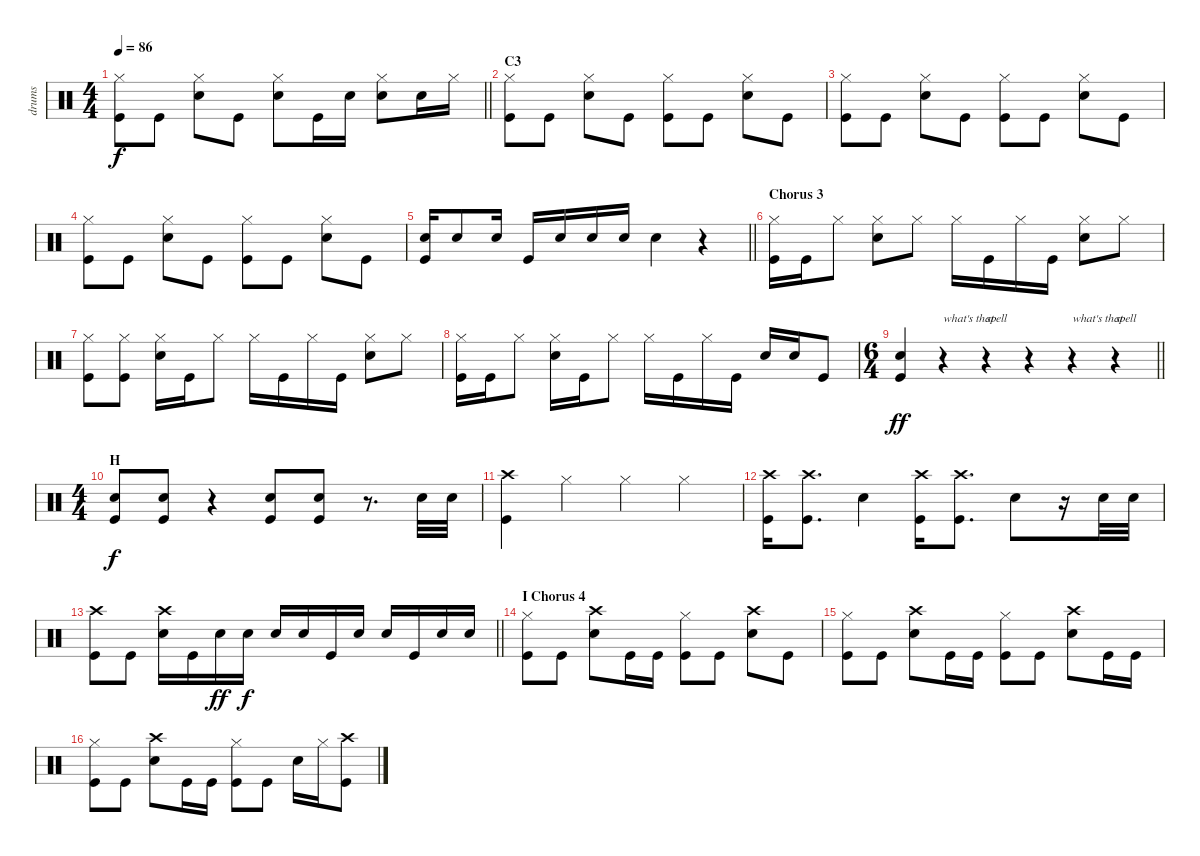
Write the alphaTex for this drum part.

\track ("drums" "drums") {instrument percussion}
\staff {score}
\articulation defaults
\ts (4 4)
\tempo 86
\clef neutral
\barLineRight lightlight
\ks c
("Hi-Hat (closed)" "Kick (hit)").8{dy f} "Kick (hit)".8 ("Snare (hit) 2" "Hi-Hat (closed)").8 "Kick (hit)".8 ("Snare (hit) 2" "Hi-Hat (closed)").8 "Kick (hit)".16 "Snare (hit) 2".16 ("Snare (hit) 2" "Hi-Hat (closed)").8 "Snare (hit) 2".16 "Hi-Hat (closed)".16 |
\section ("" "C3")
("Hi-Hat (closed)" "Kick (hit)").8 "Kick (hit)".8 ("Snare (hit) 2" "Hi-Hat (closed)").8 "Kick (hit)".8 ("Hi-Hat (closed)" "Kick (hit)").8 "Kick (hit)".8 ("Snare (hit) 2" "Hi-Hat (closed)").8 "Kick (hit)".8 |
("Hi-Hat (closed)" "Kick (hit)").8 "Kick (hit)".8 ("Snare (hit) 2" "Hi-Hat (closed)").8 "Kick (hit)".8 ("Hi-Hat (closed)" "Kick (hit)").8 "Kick (hit)".8 ("Snare (hit) 2" "Hi-Hat (closed)").8 "Kick (hit)".8 |
("Hi-Hat (closed)" "Kick (hit)").8 "Kick (hit)".8 ("Snare (hit) 2" "Hi-Hat (closed)").8 "Kick (hit)".8 ("Hi-Hat (closed)" "Kick (hit)").8 "Kick (hit)".8 ("Snare (hit) 2" "Hi-Hat (closed)").8 "Kick (hit)".8 |
\barLineRight lightlight
("Snare (hit) 2" "Kick (hit)").16 "Snare (hit) 2".8 "Snare (hit) 2".16 "Kick (hit)".16 "Snare (hit) 2".16 "Snare (hit) 2".16 "Snare (hit) 2".16 "Snare (hit) 2".4 r.4 |
\section ("" "Chorus 3")
("Hi-Hat (closed)" "Kick (hit)").16 "Kick (hit)".16 "Hi-Hat (closed)".8 ("Snare (hit) 2" "Hi-Hat (closed)").8 "Hi-Hat (closed)".8 "Hi-Hat (closed)".16 "Kick (hit)".16 "Hi-Hat (closed)".16 "Kick (hit)".16 ("Snare (hit) 2" "Hi-Hat (closed)").8 "Hi-Hat (closed)".8 |
("Hi-Hat (closed)" "Kick (hit)").8 ("Hi-Hat (closed)" "Kick (hit)").8 ("Snare (hit) 2" "Hi-Hat (closed)").16 "Kick (hit)".16 "Hi-Hat (closed)".8 "Hi-Hat (closed)".16 "Kick (hit)".16 "Hi-Hat (closed)".16 "Kick (hit)".16 ("Snare (hit) 2" "Hi-Hat (closed)").8 "Hi-Hat (closed)".8 |
("Hi-Hat (closed)" "Kick (hit)").16 "Kick (hit)".16 "Hi-Hat (closed)".8 ("Snare (hit) 2" "Hi-Hat (closed)").16 "Kick (hit)".16 "Hi-Hat (closed)".8 "Hi-Hat (closed)".16 "Kick (hit)".16 "Hi-Hat (closed)".16 "Kick (hit)".16 "Snare (hit) 2".16 "Snare (hit) 2".16 "Kick (hit)".8 |
\ts (6 4)
\barLineRight lightlight
("Snare (hit) 2" "Kick (hit)").4{dy ff} r.4{txt "what's that"} r.4{txt "spell"} r.4 r.4{txt "what's that"} r.4{txt "spell"} |
\ts (4 4)
\section ("" "H")
("Snare (hit) 2" "Kick (hit)").8{dy f} ("Snare (hit) 2" "Kick (hit)").8 r.4 ("Snare (hit) 2" "Kick (hit)").8 ("Snare (hit) 2" "Kick (hit)").8 r.8{d} "Snare (hit) 2".32 "Snare (hit) 2".32 |
("Crash high (hit)" "Kick (hit)").4 "Hi-Hat (closed)".4 "Hi-Hat (closed)".4 "Hi-Hat (closed)".4 |
("Crash high (hit)" "Kick (hit)").16 ("Crash high (hit)" "Kick (hit)").8{d} "Snare (hit) 2".4 ("Crash high (hit)" "Kick (hit)").16 ("Crash high (hit)" "Kick (hit)").8{d} "Snare (hit) 2".8 r.16 "Snare (hit) 2".32 "Snare (hit) 2".32 |
\barLineRight lightlight
("Crash high (hit)" "Kick (hit)").8 "Kick (hit)".8 ("Crash high (hit)" "Snare (hit) 2").16 "Kick (hit)".16 "Snare (hit) 2".16{dy ff} "Snare (hit) 2".16{dy f} "Snare (hit) 2".16 "Snare (hit) 2".16 "Kick (hit)".16 "Snare (hit) 2".16 "Snare (hit) 2".16 "Kick (hit)".16 "Snare (hit) 2".16 "Snare (hit) 2".16 |
\section ("" "I Chorus 4")
("Hi-Hat (closed)" "Kick (hit)").8 "Kick (hit)".8 ("Crash high (hit)" "Snare (hit) 2").8 "Kick (hit)".16 "Kick (hit)".16 ("Hi-Hat (closed)" "Kick (hit)").8 "Kick (hit)".8 ("Crash high (hit)" "Snare (hit) 2").8 "Kick (hit)".8 |
("Hi-Hat (closed)" "Kick (hit)").8 "Kick (hit)".8 ("Crash high (hit)" "Snare (hit) 2").8 "Kick (hit)".16 "Kick (hit)".16 ("Hi-Hat (closed)" "Kick (hit)").8 "Kick (hit)".8 ("Crash high (hit)" "Snare (hit) 2").8 "Kick (hit)".16 "Kick (hit)".16 |
("Hi-Hat (closed)" "Kick (hit)").8 "Kick (hit)".8 ("Crash high (hit)" "Snare (hit) 2").8 "Kick (hit)".16 "Kick (hit)".16 ("Hi-Hat (closed)" "Kick (hit)").8 "Kick (hit)".8 "Snare (hit) 2".16 "Hi-Hat (closed)".16 ("Crash high (hit)" "Kick (hit)").8
